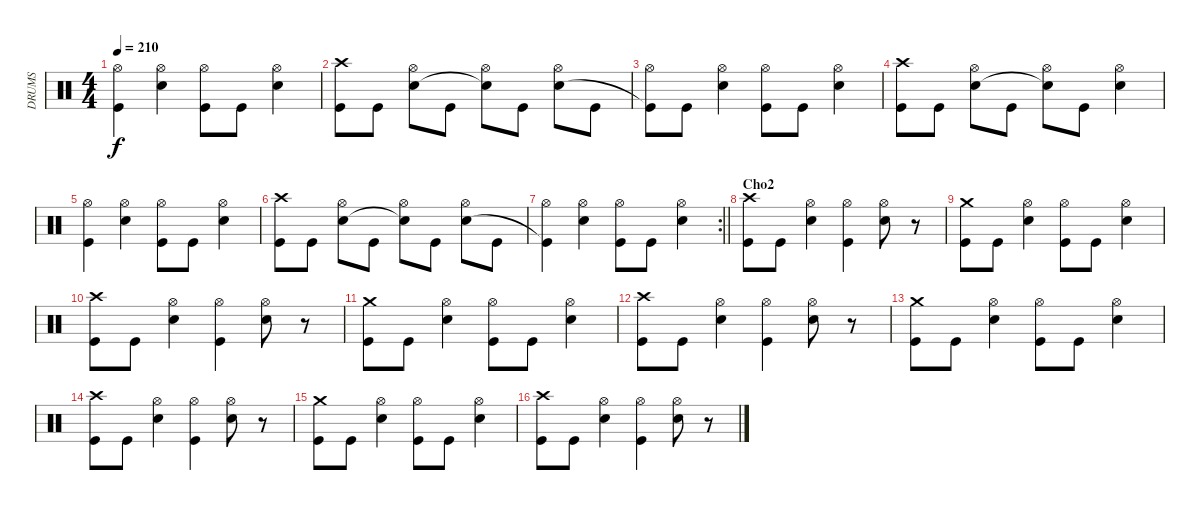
\track ("DRUMS" "DRUMS") {instrument percussion}
\staff {score}
\articulation defaults
\ts (4 4)
\tempo 210
\clef neutral
\ks c
("Hi-Hat (open)" "Kick (hit)").4{dy f} ("Hi-Hat (open)" "Snare (hit) 2").4 ("Hi-Hat (open)" "Kick (hit)").8 "Kick (hit)".8 ("Hi-Hat (open)" "Snare (hit) 2").4 |
("Crash high (hit)" "Kick (hit)").8 "Kick (hit)".8 ("Hi-Hat (open)" "Snare (hit) 2").8 "Kick (hit)".8 ("Hi-Hat (open)" "Snare (hit)"{t}).8 "Kick (hit)".8 ("Hi-Hat (open)" "Snare (hit) 2").8 "Kick (hit)".8 |
("Hi-Hat (open)" "Kick (hit)"{t}).8 "Kick (hit)".8 ("Hi-Hat (open)" "Snare (hit) 2").4 ("Hi-Hat (open)" "Kick (hit)").8 "Kick (hit)".8 ("Hi-Hat (open)" "Snare (hit) 2").4 |
("Crash high (hit)" "Kick (hit)").8 "Kick (hit)".8 ("Hi-Hat (open)" "Snare (hit) 2").8 "Kick (hit)".8 ("Hi-Hat (open)" "Snare (hit)"{t}).8 "Kick (hit)".8 ("Hi-Hat (open)" "Snare (hit) 2").4 |
("Hi-Hat (open)" "Kick (hit)").4 ("Hi-Hat (open)" "Snare (hit) 2").4 ("Hi-Hat (open)" "Kick (hit)").8 "Kick (hit)".8 ("Hi-Hat (open)" "Snare (hit) 2").4 |
("Crash high (hit)" "Kick (hit)").8 "Kick (hit)".8 ("Hi-Hat (open)" "Snare (hit) 2").8 "Kick (hit)".8 ("Hi-Hat (open)" "Snare (hit)"{t}).8 "Kick (hit)".8 ("Hi-Hat (open)" "Snare (hit) 2").8 "Kick (hit)".8 |
\rc 2
\barLineRight lightlight
("Hi-Hat (open)" "Kick (hit)"{t}).4 ("Hi-Hat (open)" "Snare (hit) 2").4 ("Hi-Hat (open)" "Kick (hit)").8 "Kick (hit)".8 ("Hi-Hat (open)" "Snare (hit) 2").4 |
\section ("" "Cho2")
("Crash high (hit)" "Kick (hit)").8 "Kick (hit)".8 ("Hi-Hat (open)" "Snare (hit) 2").4 ("Hi-Hat (open)" "Kick (hit)").4 ("Hi-Hat (open)" "Snare (hit) 2").8 r.8 |
("Crash medium (hit)" "Kick (hit)").8 "Kick (hit)".8 ("Hi-Hat (open)" "Snare (hit) 2").4 ("Hi-Hat (open)" "Kick (hit)").8 "Kick (hit)".8 ("Hi-Hat (open)" "Snare (hit) 2").4 |
("Crash high (hit)" "Kick (hit)").8 "Kick (hit)".8 ("Hi-Hat (open)" "Snare (hit) 2").4 ("Hi-Hat (open)" "Kick (hit)").4 ("Hi-Hat (open)" "Snare (hit) 2").8 r.8 |
("Crash medium (hit)" "Kick (hit)").8 "Kick (hit)".8 ("Hi-Hat (open)" "Snare (hit) 2").4 ("Hi-Hat (open)" "Kick (hit)").8 "Kick (hit)".8 ("Hi-Hat (open)" "Snare (hit) 2").4 |
("Crash high (hit)" "Kick (hit)").8 "Kick (hit)".8 ("Hi-Hat (open)" "Snare (hit) 2").4 ("Hi-Hat (open)" "Kick (hit)").4 ("Hi-Hat (open)" "Snare (hit) 2").8 r.8 |
("Crash medium (hit)" "Kick (hit)").8 "Kick (hit)".8 ("Hi-Hat (open)" "Snare (hit) 2").4 ("Hi-Hat (open)" "Kick (hit)").8 "Kick (hit)".8 ("Hi-Hat (open)" "Snare (hit) 2").4 |
("Crash high (hit)" "Kick (hit)").8 "Kick (hit)".8 ("Hi-Hat (open)" "Snare (hit) 2").4 ("Hi-Hat (open)" "Kick (hit)").4 ("Hi-Hat (open)" "Snare (hit) 2").8 r.8 |
("Crash medium (hit)" "Kick (hit)").8 "Kick (hit)".8 ("Hi-Hat (open)" "Snare (hit) 2").4 ("Hi-Hat (open)" "Kick (hit)").8 "Kick (hit)".8 ("Hi-Hat (open)" "Snare (hit) 2").4 |
("Crash high (hit)" "Kick (hit)").8 "Kick (hit)".8 ("Hi-Hat (open)" "Snare (hit) 2").4 ("Hi-Hat (open)" "Kick (hit)").4 ("Hi-Hat (open)" "Snare (hit) 2").8 r.8
